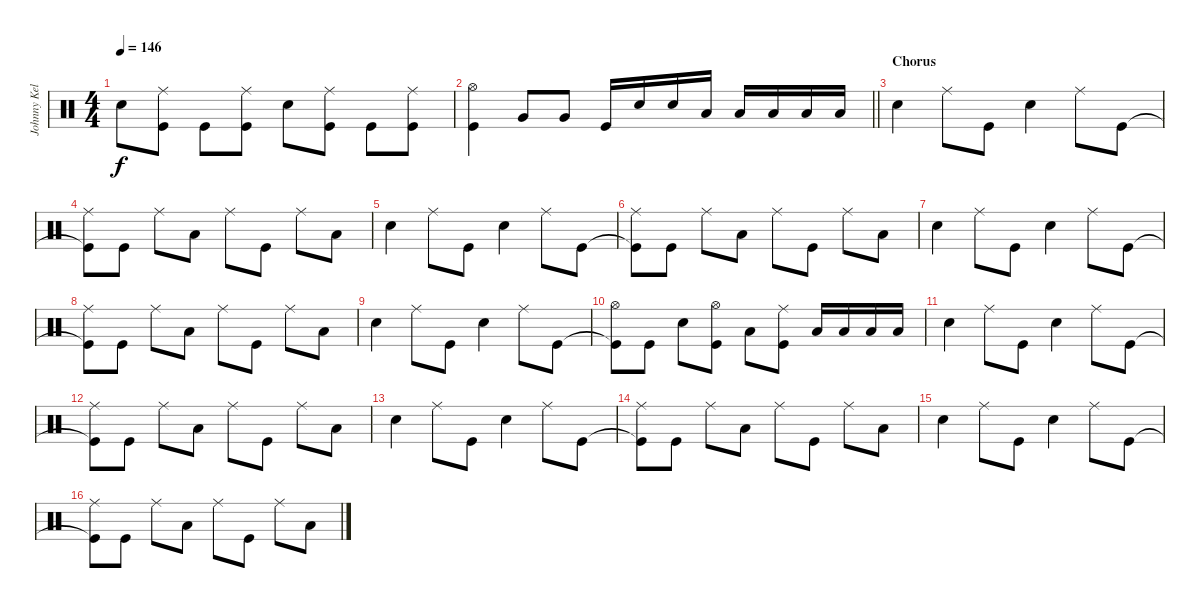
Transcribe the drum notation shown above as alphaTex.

\track ("Johnny Kelly" "Johnny Kel") {instrument percussion}
\staff {score}
\articulation defaults
\ts (4 4)
\tempo 146
\clef neutral
\ks c "Snare (hit) 2".8{dy f}
("Kick (hit)" "Ride (middle)").8 "Kick (hit)".8 ("Kick (hit)" "Ride (middle)").8 "Snare (hit) 2".8 ("Kick (hit)" "Ride (middle)").8 "Kick (hit)".8 ("Kick (hit)" "Ride (middle)").8 |
\barLineRight lightlight
("Kick (hit)" "Hi-Hat (open)").4 "Very Low Tom (hit)".8 "Very Low Tom (hit)".8 "Kick (hit)".16 "Snare (hit) 2".16 "Snare (hit) 2".16 "Low Tom (hit)".16 "Low Tom (hit)".16 "Low Tom (hit)".16 "Low Tom (hit)".16 "Low Tom (hit)".16 |
\section ("" "Chorus")
"Snare (hit) 2".4 "Ride (middle)".8 "Kick (hit)".8 "Snare (hit) 2".4 "Ride (middle)".8 "Kick (hit)".8 |
("Kick (hit)"{t} "Ride (middle)").8 "Kick (hit)".8 "Ride (middle)".8 "Low Tom (hit)".8 "Ride (middle)".8 "Kick (hit)".8 "Ride (middle)".8 "Low Tom (hit)".8 |
"Snare (hit) 2".4 "Ride (middle)".8 "Kick (hit)".8 "Snare (hit) 2".4 "Ride (middle)".8 "Kick (hit)".8 |
("Kick (hit)"{t} "Ride (middle)").8 "Kick (hit)".8 "Ride (middle)".8 "Low Tom (hit)".8 "Ride (middle)".8 "Kick (hit)".8 "Ride (middle)".8 "Low Tom (hit)".8 |
"Snare (hit) 2".4 "Ride (middle)".8 "Kick (hit)".8 "Snare (hit) 2".4 "Ride (middle)".8 "Kick (hit)".8 |
("Kick (hit)"{t} "Ride (middle)").8 "Kick (hit)".8 "Ride (middle)".8 "Low Tom (hit)".8 "Ride (middle)".8 "Kick (hit)".8 "Ride (middle)".8 "Low Tom (hit)".8 |
"Snare (hit) 2".4 "Ride (middle)".8 "Kick (hit)".8 "Snare (hit) 2".4 "Ride (middle)".8 "Kick (hit)".8 |
("Kick (hit)"{t} "Hi-Hat (open)").8 "Kick (hit)".8 "Snare (hit) 2".8 ("Kick (hit)" "Hi-Hat (open)").8 "Low Tom (hit)".8 ("Kick (hit)" "Ride (middle)").8 "Low Tom (hit)".16 "Low Tom (hit)".16 "Low Tom (hit)".16 "Low Tom (hit)".16 |
"Snare (hit) 2".4 "Ride (middle)".8 "Kick (hit)".8 "Snare (hit) 2".4 "Ride (middle)".8 "Kick (hit)".8 |
("Kick (hit)"{t} "Ride (middle)").8 "Kick (hit)".8 "Ride (middle)".8 "Low Tom (hit)".8 "Ride (middle)".8 "Kick (hit)".8 "Ride (middle)".8 "Low Tom (hit)".8 |
"Snare (hit) 2".4 "Ride (middle)".8 "Kick (hit)".8 "Snare (hit) 2".4 "Ride (middle)".8 "Kick (hit)".8 |
("Kick (hit)"{t} "Ride (middle)").8 "Kick (hit)".8 "Ride (middle)".8 "Low Tom (hit)".8 "Ride (middle)".8 "Kick (hit)".8 "Ride (middle)".8 "Low Tom (hit)".8 |
"Snare (hit) 2".4 "Ride (middle)".8 "Kick (hit)".8 "Snare (hit) 2".4 "Ride (middle)".8 "Kick (hit)".8 |
("Kick (hit)"{t} "Ride (middle)").8 "Kick (hit)".8 "Ride (middle)".8 "Low Tom (hit)".8 "Ride (middle)".8 "Kick (hit)".8 "Ride (middle)".8 "Low Tom (hit)".8
